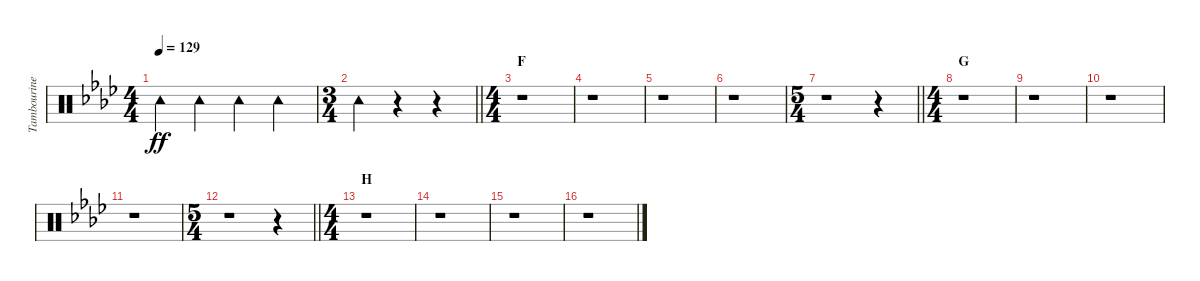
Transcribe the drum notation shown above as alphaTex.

\track ("Tambourine" "Tambourine") {instrument percussion}
\staff {score}
\articulation defaults
\ts (4 4)
\tempo 129
\clef neutral
\ks ab "Tambourine (hit)".4{dy ff} "Tambourine (hit)".4 "Tambourine (hit)".4 "Tambourine (hit)".4
|
\ts (3 4)
\barLineRight lightlight "Tambourine (hit)".4
r.4 r.4 |
\ts (4 4)
\section ("" "F")
r.1 |
r.1 |
r.1 |
r.1 |
\ts (5 4)
\barLineRight lightlight
r.1 r.4 |
\ts (4 4)
\section ("" "G")
r.1 |
r.1 |
r.1 |
r.1 |
\ts (5 4)
\barLineRight lightlight
r.1 r.4 |
\ts (4 4)
\section ("" "H")
r.1 |
r.1 |
r.1 |
r.1
